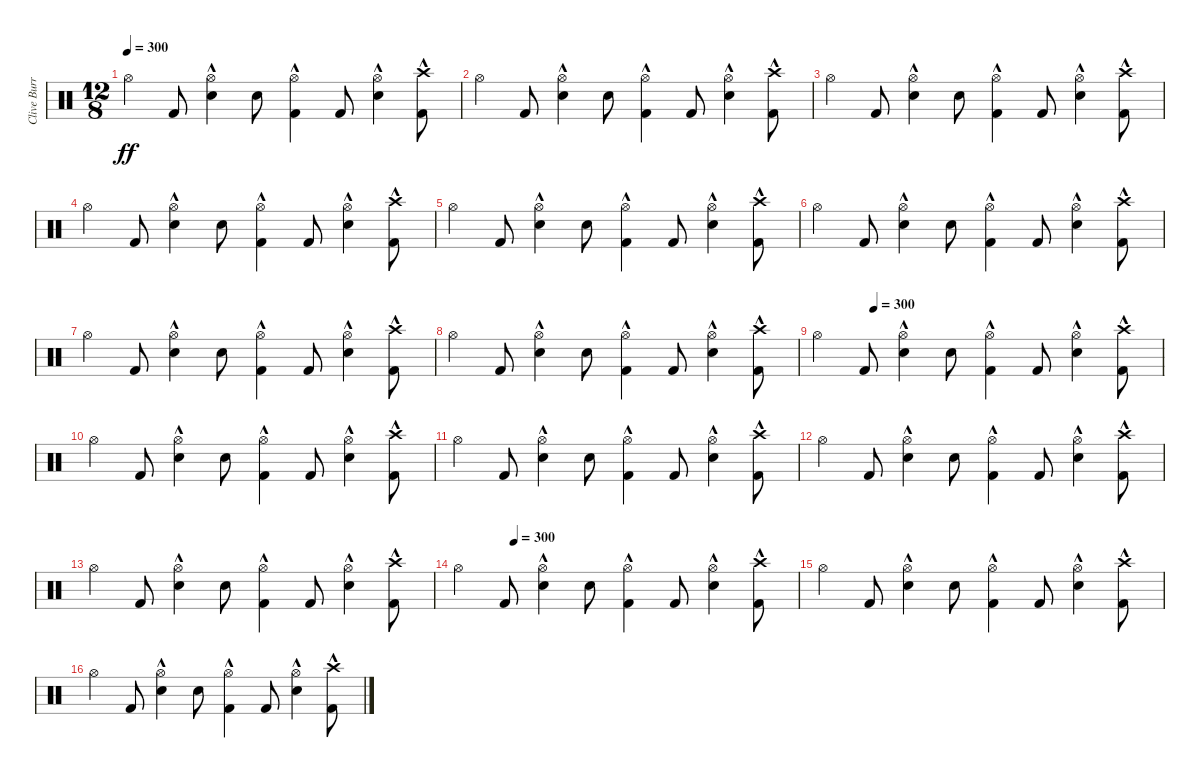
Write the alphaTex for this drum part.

\track ("Clive Burr" "Clive Burr") {instrument percussion}
\staff {score}
\articulation defaults
\ts (12 8)
\tempo 300
\clef neutral
\ks c "Hi-Hat (open)".4{dy ff} "Kick (hit) 2".8
("Snare (hit) 2"{hac} "Hi-Hat (open)").4 "Snare (hit) 2".8 ("Kick (hit) 2"{hac} "Hi-Hat (open)").4 "Kick (hit) 2".8 ("Snare (hit) 2"{hac} "Hi-Hat (open)").4 ("Kick (hit) 2" "Crash high (hit)"{hac}).8 |
"Hi-Hat (open)".4 "Kick (hit) 2".8 ("Snare (hit) 2"{hac} "Hi-Hat (open)").4 "Snare (hit) 2".8 ("Kick (hit) 2"{hac} "Hi-Hat (open)").4 "Kick (hit) 2".8 ("Snare (hit) 2"{hac} "Hi-Hat (open)").4 ("Kick (hit) 2" "Crash high (hit)"{hac}).8 |
"Hi-Hat (open)".4 "Kick (hit) 2".8 ("Snare (hit) 2"{hac} "Hi-Hat (open)").4 "Snare (hit) 2".8 ("Kick (hit) 2"{hac} "Hi-Hat (open)").4 "Kick (hit) 2".8 ("Snare (hit) 2"{hac} "Hi-Hat (open)").4 ("Kick (hit) 2" "Crash high (hit)"{hac}).8 |
"Hi-Hat (open)".4 "Kick (hit) 2".8 ("Snare (hit) 2"{hac} "Hi-Hat (open)").4 "Snare (hit) 2".8 ("Kick (hit) 2"{hac} "Hi-Hat (open)").4 "Kick (hit) 2".8 ("Snare (hit) 2"{hac} "Hi-Hat (open)").4 ("Kick (hit) 2" "Crash high (hit)"{hac}).8 |
"Hi-Hat (open)".4 "Kick (hit) 2".8 ("Snare (hit) 2"{hac} "Hi-Hat (open)").4 "Snare (hit) 2".8 ("Kick (hit) 2"{hac} "Hi-Hat (open)").4 "Kick (hit) 2".8 ("Snare (hit) 2"{hac} "Hi-Hat (open)").4 ("Kick (hit) 2" "Crash high (hit)"{hac}).8 |
"Hi-Hat (open)".4 "Kick (hit) 2".8 ("Snare (hit) 2"{hac} "Hi-Hat (open)").4 "Snare (hit) 2".8 ("Kick (hit) 2"{hac} "Hi-Hat (open)").4 "Kick (hit) 2".8 ("Snare (hit) 2"{hac} "Hi-Hat (open)").4 ("Kick (hit) 2" "Crash high (hit)"{hac}).8 |
"Hi-Hat (open)".4 "Kick (hit) 2".8 ("Snare (hit) 2"{hac} "Hi-Hat (open)").4 "Snare (hit) 2".8 ("Kick (hit) 2"{hac} "Hi-Hat (open)").4 "Kick (hit) 2".8 ("Snare (hit) 2"{hac} "Hi-Hat (open)").4 ("Kick (hit) 2" "Crash high (hit)"{hac}).8 |
"Hi-Hat (open)".4 "Kick (hit) 2".8 ("Snare (hit) 2"{hac} "Hi-Hat (open)").4 "Snare (hit) 2".8 ("Kick (hit) 2"{hac} "Hi-Hat (open)").4 "Kick (hit) 2".8 ("Snare (hit) 2"{hac} "Hi-Hat (open)").4 ("Kick (hit) 2" "Crash high (hit)"{hac}).8 |
\tempo (300 0.16666666666666666)
"Hi-Hat (open)".4 "Kick (hit) 2".8 ("Snare (hit) 2"{hac} "Hi-Hat (open)").4 "Snare (hit) 2".8 ("Kick (hit) 2"{hac} "Hi-Hat (open)").4 "Kick (hit) 2".8 ("Snare (hit) 2"{hac} "Hi-Hat (open)").4 ("Kick (hit) 2" "Crash high (hit)"{hac}).8 |
"Hi-Hat (open)".4 "Kick (hit) 2".8 ("Snare (hit) 2"{hac} "Hi-Hat (open)").4 "Snare (hit) 2".8 ("Kick (hit) 2"{hac} "Hi-Hat (open)").4 "Kick (hit) 2".8 ("Snare (hit) 2"{hac} "Hi-Hat (open)").4 ("Kick (hit) 2" "Crash high (hit)"{hac}).8 |
"Hi-Hat (open)".4 "Kick (hit) 2".8 ("Snare (hit) 2"{hac} "Hi-Hat (open)").4 "Snare (hit) 2".8 ("Kick (hit) 2"{hac} "Hi-Hat (open)").4 "Kick (hit) 2".8 ("Snare (hit) 2"{hac} "Hi-Hat (open)").4 ("Kick (hit) 2" "Crash high (hit)"{hac}).8 |
"Hi-Hat (open)".4 "Kick (hit) 2".8 ("Snare (hit) 2"{hac} "Hi-Hat (open)").4 "Snare (hit) 2".8 ("Kick (hit) 2"{hac} "Hi-Hat (open)").4 "Kick (hit) 2".8 ("Snare (hit) 2"{hac} "Hi-Hat (open)").4 ("Kick (hit) 2" "Crash high (hit)"{hac}).8 |
"Hi-Hat (open)".4 "Kick (hit) 2".8 ("Snare (hit) 2"{hac} "Hi-Hat (open)").4 "Snare (hit) 2".8 ("Kick (hit) 2"{hac} "Hi-Hat (open)").4 "Kick (hit) 2".8 ("Snare (hit) 2"{hac} "Hi-Hat (open)").4 ("Kick (hit) 2" "Crash high (hit)"{hac}).8 |
\tempo (300 0.16666666666666666)
"Hi-Hat (open)".4 "Kick (hit) 2".8 ("Snare (hit) 2"{hac} "Hi-Hat (open)").4 "Snare (hit) 2".8 ("Kick (hit) 2"{hac} "Hi-Hat (open)").4 "Kick (hit) 2".8 ("Snare (hit) 2"{hac} "Hi-Hat (open)").4 ("Kick (hit) 2" "Crash high (hit)"{hac}).8 |
"Hi-Hat (open)".4 "Kick (hit) 2".8 ("Snare (hit) 2"{hac} "Hi-Hat (open)").4 "Snare (hit) 2".8 ("Kick (hit) 2"{hac} "Hi-Hat (open)").4 "Kick (hit) 2".8 ("Snare (hit) 2"{hac} "Hi-Hat (open)").4 ("Kick (hit) 2" "Crash high (hit)"{hac}).8 |
"Hi-Hat (open)".4 "Kick (hit) 2".8 ("Snare (hit) 2"{hac} "Hi-Hat (open)").4 "Snare (hit) 2".8 ("Kick (hit) 2"{hac} "Hi-Hat (open)").4 "Kick (hit) 2".8 ("Snare (hit) 2"{hac} "Hi-Hat (open)").4 ("Kick (hit) 2" "Crash high (hit)"{hac}).8
